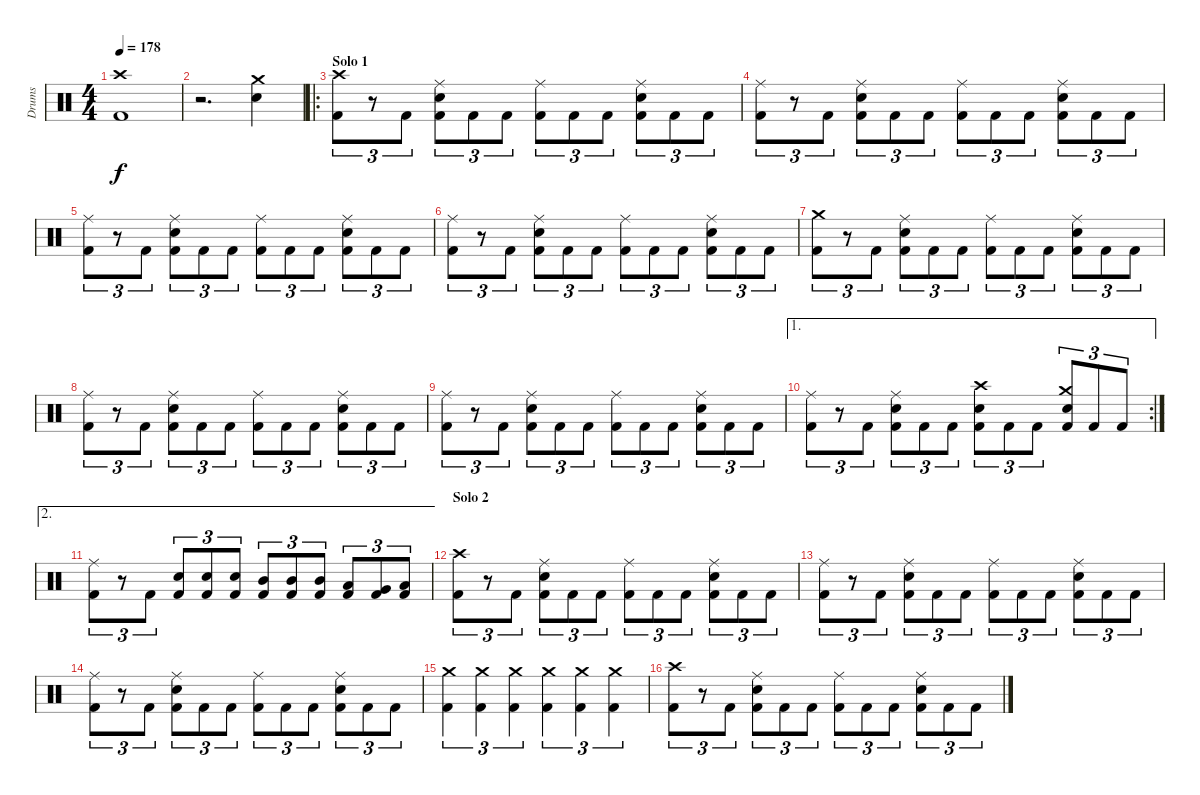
\track ("Drums" "Drums") {instrument percussion}
\staff {score}
\articulation defaults
\ts (4 4)
\tempo 178
\clef neutral
\ks c
("Crash high (hit)" "Kick (hit) 2").1{dy f} |
r.2{d} ("Crash medium (hit)" "Electric Snare (hit)").4 |
\ro
\section ("" "Solo 1")
("Crash high (hit)" "Kick (hit) 2").8{tu (3 2)} r.8{tu (3 2)} "Kick (hit) 2".8{tu (3 2)} ("Ride (middle)" "Electric Snare (hit)" "Kick (hit) 2").8{tu (3 2)} "Kick (hit) 2".8{tu (3 2)} "Kick (hit) 2".8{tu (3 2)} ("Ride (middle)" "Kick (hit) 2").8{tu (3 2)} "Kick (hit) 2".8{tu (3 2)} "Kick (hit) 2".8{tu (3 2)} ("Ride (middle)" "Electric Snare (hit)" "Kick (hit) 2").8{tu (3 2)} "Kick (hit) 2".8{tu (3 2)} "Kick (hit) 2".8{tu (3 2)} |
("Ride (middle)" "Kick (hit) 2").8{tu (3 2)} r.8{tu (3 2)} "Kick (hit) 2".8{tu (3 2)} ("Ride (middle)" "Electric Snare (hit)" "Kick (hit) 2").8{tu (3 2)} "Kick (hit) 2".8{tu (3 2)} "Kick (hit) 2".8{tu (3 2)} ("Ride (middle)" "Kick (hit) 2").8{tu (3 2)} "Kick (hit) 2".8{tu (3 2)} "Kick (hit) 2".8{tu (3 2)} ("Ride (middle)" "Electric Snare (hit)" "Kick (hit) 2").8{tu (3 2)} "Kick (hit) 2".8{tu (3 2)} "Kick (hit) 2".8{tu (3 2)} |
("Ride (middle)" "Kick (hit) 2").8{tu (3 2)} r.8{tu (3 2)} "Kick (hit) 2".8{tu (3 2)} ("Ride (middle)" "Electric Snare (hit)" "Kick (hit) 2").8{tu (3 2)} "Kick (hit) 2".8{tu (3 2)} "Kick (hit) 2".8{tu (3 2)} ("Ride (middle)" "Kick (hit) 2").8{tu (3 2)} "Kick (hit) 2".8{tu (3 2)} "Kick (hit) 2".8{tu (3 2)} ("Ride (middle)" "Electric Snare (hit)" "Kick (hit) 2").8{tu (3 2)} "Kick (hit) 2".8{tu (3 2)} "Kick (hit) 2".8{tu (3 2)} |
("Ride (middle)" "Kick (hit) 2").8{tu (3 2)} r.8{tu (3 2)} "Kick (hit) 2".8{tu (3 2)} ("Ride (middle)" "Electric Snare (hit)" "Kick (hit) 2").8{tu (3 2)} "Kick (hit) 2".8{tu (3 2)} "Kick (hit) 2".8{tu (3 2)} ("Ride (middle)" "Kick (hit) 2").8{tu (3 2)} "Kick (hit) 2".8{tu (3 2)} "Kick (hit) 2".8{tu (3 2)} ("Ride (middle)" "Electric Snare (hit)" "Kick (hit) 2").8{tu (3 2)} "Kick (hit) 2".8{tu (3 2)} "Kick (hit) 2".8{tu (3 2)} |
("Crash medium (hit)" "Kick (hit) 2").8{tu (3 2)} r.8{tu (3 2)} "Kick (hit) 2".8{tu (3 2)} ("Ride (middle)" "Electric Snare (hit)" "Kick (hit) 2").8{tu (3 2)} "Kick (hit) 2".8{tu (3 2)} "Kick (hit) 2".8{tu (3 2)} ("Ride (middle)" "Kick (hit) 2").8{tu (3 2)} "Kick (hit) 2".8{tu (3 2)} "Kick (hit) 2".8{tu (3 2)} ("Ride (middle)" "Electric Snare (hit)" "Kick (hit) 2").8{tu (3 2)} "Kick (hit) 2".8{tu (3 2)} "Kick (hit) 2".8{tu (3 2)} |
("Ride (middle)" "Kick (hit) 2").8{tu (3 2)} r.8{tu (3 2)} "Kick (hit) 2".8{tu (3 2)} ("Ride (middle)" "Electric Snare (hit)" "Kick (hit) 2").8{tu (3 2)} "Kick (hit) 2".8{tu (3 2)} "Kick (hit) 2".8{tu (3 2)} ("Ride (middle)" "Kick (hit) 2").8{tu (3 2)} "Kick (hit) 2".8{tu (3 2)} "Kick (hit) 2".8{tu (3 2)} ("Ride (middle)" "Electric Snare (hit)" "Kick (hit) 2").8{tu (3 2)} "Kick (hit) 2".8{tu (3 2)} "Kick (hit) 2".8{tu (3 2)} |
("Ride (middle)" "Kick (hit) 2").8{tu (3 2)} r.8{tu (3 2)} "Kick (hit) 2".8{tu (3 2)} ("Ride (middle)" "Electric Snare (hit)" "Kick (hit) 2").8{tu (3 2)} "Kick (hit) 2".8{tu (3 2)} "Kick (hit) 2".8{tu (3 2)} ("Ride (middle)" "Kick (hit) 2").8{tu (3 2)} "Kick (hit) 2".8{tu (3 2)} "Kick (hit) 2".8{tu (3 2)} ("Ride (middle)" "Electric Snare (hit)" "Kick (hit) 2").8{tu (3 2)} "Kick (hit) 2".8{tu (3 2)} "Kick (hit) 2".8{tu (3 2)} |
\ae 1
\rc 2
("Ride (middle)" "Kick (hit) 2").8{tu (3 2)} r.8{tu (3 2)} "Kick (hit) 2".8{tu (3 2)} ("Ride (middle)" "Electric Snare (hit)" "Kick (hit) 2").8{tu (3 2)} "Kick (hit) 2".8{tu (3 2)} "Kick (hit) 2".8{tu (3 2)} ("Crash high (hit)" "Electric Snare (hit)" "Kick (hit) 2").8{tu (3 2)} "Kick (hit) 2".8{tu (3 2)} "Kick (hit) 2".8{tu (3 2)} ("Crash medium (hit)" "Electric Snare (hit)" "Kick (hit) 2").8{tu (3 2)} "Kick (hit) 2".8{tu (3 2)} "Kick (hit) 2".8{tu (3 2)} |
\ae 2
("Ride (middle)" "Kick (hit) 2").8{tu (3 2)} r.8{tu (3 2)} "Kick (hit) 2".8{tu (3 2)} ("Electric Snare (hit)" "Kick (hit) 2").8{tu (3 2)} ("Electric Snare (hit)" "Kick (hit) 2").8{tu (3 2)} ("Electric Snare (hit)" "Kick (hit) 2").8{tu (3 2)} ("Mid Tom (hit)" "Kick (hit) 2").8{tu (3 2)} ("Mid Tom (hit)" "Kick (hit) 2").8{tu (3 2)} ("Mid Tom (hit)" "Kick (hit) 2").8{tu (3 2)} ("Low Tom (hit)" "Kick (hit) 2").8{tu (3 2)} ("Very Low Tom (hit)" "Kick (hit) 2").8{tu (3 2)} ("Low Floor Tom (hit)" "Kick (hit) 2").8{tu (3 2)} |
\section ("" "Solo 2")
("Crash high (hit)" "Kick (hit) 2").8{tu (3 2)} r.8{tu (3 2)} "Kick (hit) 2".8{tu (3 2)} ("Ride (middle)" "Electric Snare (hit)" "Kick (hit) 2").8{tu (3 2)} "Kick (hit) 2".8{tu (3 2)} "Kick (hit) 2".8{tu (3 2)} ("Ride (middle)" "Kick (hit) 2").8{tu (3 2)} "Kick (hit) 2".8{tu (3 2)} "Kick (hit) 2".8{tu (3 2)} ("Ride (middle)" "Electric Snare (hit)" "Kick (hit) 2").8{tu (3 2)} "Kick (hit) 2".8{tu (3 2)} "Kick (hit) 2".8{tu (3 2)} |
("Ride (middle)" "Kick (hit) 2").8{tu (3 2)} r.8{tu (3 2)} "Kick (hit) 2".8{tu (3 2)} ("Ride (middle)" "Electric Snare (hit)" "Kick (hit) 2").8{tu (3 2)} "Kick (hit) 2".8{tu (3 2)} "Kick (hit) 2".8{tu (3 2)} ("Ride (middle)" "Kick (hit) 2").8{tu (3 2)} "Kick (hit) 2".8{tu (3 2)} "Kick (hit) 2".8{tu (3 2)} ("Ride (middle)" "Electric Snare (hit)" "Kick (hit) 2").8{tu (3 2)} "Kick (hit) 2".8{tu (3 2)} "Kick (hit) 2".8{tu (3 2)} |
("Ride (middle)" "Kick (hit) 2").8{tu (3 2)} r.8{tu (3 2)} "Kick (hit) 2".8{tu (3 2)} ("Ride (middle)" "Electric Snare (hit)" "Kick (hit) 2").8{tu (3 2)} "Kick (hit) 2".8{tu (3 2)} "Kick (hit) 2".8{tu (3 2)} ("Ride (middle)" "Kick (hit) 2").8{tu (3 2)} "Kick (hit) 2".8{tu (3 2)} "Kick (hit) 2".8{tu (3 2)} ("Ride (middle)" "Electric Snare (hit)" "Kick (hit) 2").8{tu (3 2)} "Kick (hit) 2".8{tu (3 2)} "Kick (hit) 2".8{tu (3 2)} |
("Crash medium (hit)" "Kick (hit) 2").4{tu (3 2)} ("Crash medium (hit)" "Kick (hit) 2").4{tu (3 2)} ("Crash medium (hit)" "Kick (hit) 2").4{tu (3 2)} ("Crash medium (hit)" "Kick (hit) 2").4{tu (3 2)} ("Crash medium (hit)" "Kick (hit) 2").4{tu (3 2)} ("Crash medium (hit)" "Kick (hit) 2").4{tu (3 2)} |
("Crash high (hit)" "Kick (hit) 2").8{tu (3 2)} r.8{tu (3 2)} "Kick (hit) 2".8{tu (3 2)} ("Ride (middle)" "Electric Snare (hit)" "Kick (hit) 2").8{tu (3 2)} "Kick (hit) 2".8{tu (3 2)} "Kick (hit) 2".8{tu (3 2)} ("Ride (middle)" "Kick (hit) 2").8{tu (3 2)} "Kick (hit) 2".8{tu (3 2)} "Kick (hit) 2".8{tu (3 2)} ("Ride (middle)" "Electric Snare (hit)" "Kick (hit) 2").8{tu (3 2)} "Kick (hit) 2".8{tu (3 2)} "Kick (hit) 2".8{tu (3 2)}
